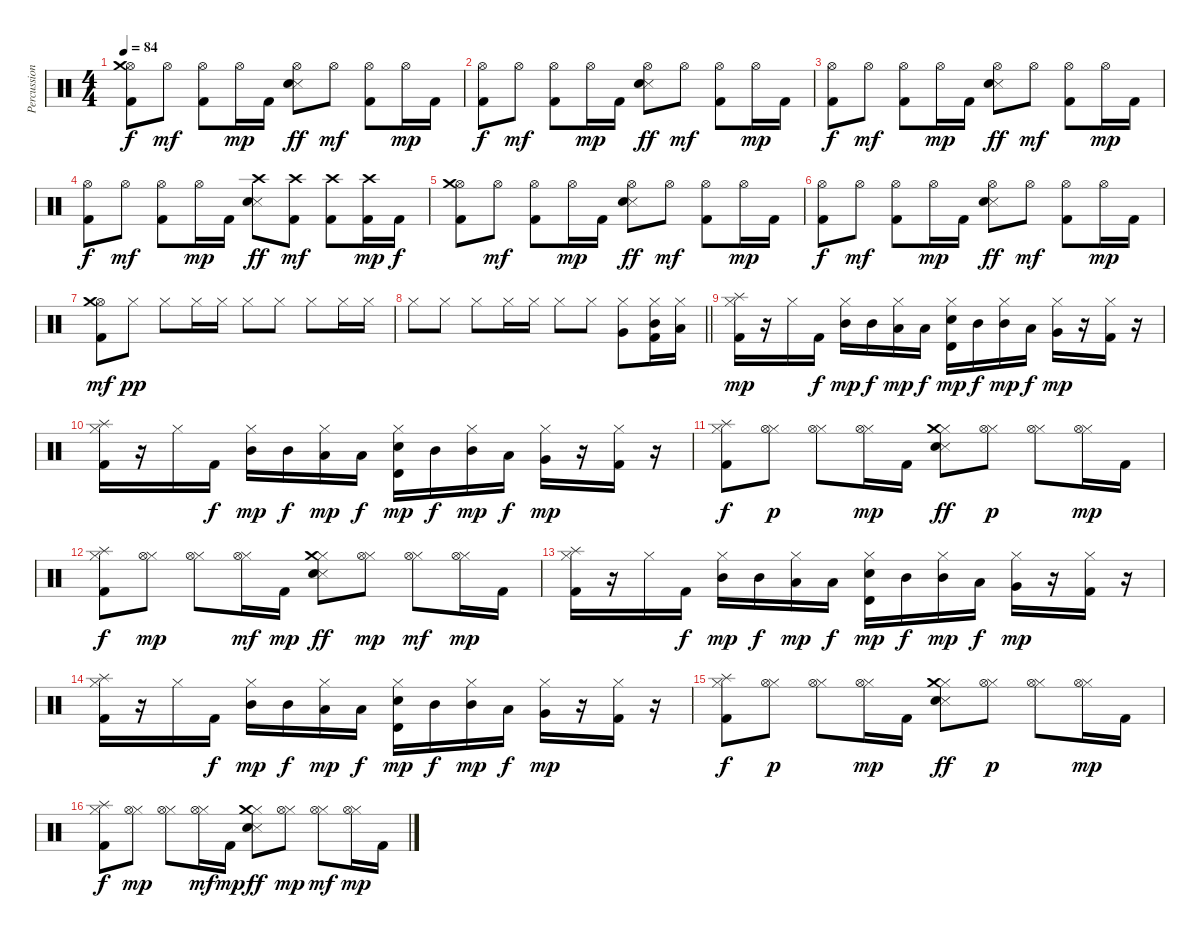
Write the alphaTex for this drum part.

\track ("Percussion" "Percussion") {instrument percussion}
\staff {score}
\articulation defaults
\ts (4 4)
\tempo 84
\clef neutral
\ks c
("Hi-Hat (open)" "Crash medium (hit)" "Kick (hit) 2").8{dy f} "Hi-Hat (open)".8{dy mf} ("Hi-Hat (open)" "Kick (hit) 2").8 "Hi-Hat (open)".16{dy mp} "Kick (hit) 2".16 ("Hi-Hat (open)" "Snare (side stick) 3" "Electric Snare (hit)").8{dy ff} "Hi-Hat (open)".8{dy mf} ("Hi-Hat (open)" "Kick (hit) 2").8 "Hi-Hat (open)".16{dy mp} "Kick (hit) 2".16 |
("Hi-Hat (open)" "Kick (hit) 2").8{dy f} "Hi-Hat (open)".8{dy mf} ("Hi-Hat (open)" "Kick (hit) 2").8 "Hi-Hat (open)".16{dy mp} "Kick (hit) 2".16 ("Hi-Hat (open)" "Snare (side stick) 3" "Electric Snare (hit)").8{dy ff} "Hi-Hat (open)".8{dy mf} ("Hi-Hat (open)" "Kick (hit) 2").8 "Hi-Hat (open)".16{dy mp} "Kick (hit) 2".16 |
("Hi-Hat (open)" "Kick (hit) 2").8{dy f} "Hi-Hat (open)".8{dy mf} ("Hi-Hat (open)" "Kick (hit) 2").8 "Hi-Hat (open)".16{dy mp} "Kick (hit) 2".16 ("Hi-Hat (open)" "Snare (side stick) 3" "Electric Snare (hit)").8{dy ff} "Hi-Hat (open)".8{dy mf} ("Hi-Hat (open)" "Kick (hit) 2").8 "Hi-Hat (open)".16{dy mp} "Kick (hit) 2".16 |
("Hi-Hat (open)" "Kick (hit) 2").8{dy f} "Hi-Hat (open)".8{dy mf} ("Hi-Hat (open)" "Kick (hit) 2").8 "Hi-Hat (open)".16{dy mp} "Kick (hit) 2".16 ("Crash high (hit)" "Snare (side stick) 3" "Electric Snare (hit)").8{dy ff} ("Crash high (hit)" "Kick (hit) 2").8{dy mf} ("Crash high (hit)" "Kick (hit) 2").8 ("Crash high (hit)" "Kick (hit) 2").16{dy mp} "Kick (hit) 2".16{dy f} |
("Hi-Hat (open)" "Crash medium (hit)" "Kick (hit) 2").8 "Hi-Hat (open)".8{dy mf} ("Hi-Hat (open)" "Kick (hit) 2").8 "Hi-Hat (open)".16{dy mp} "Kick (hit) 2".16 ("Hi-Hat (open)" "Snare (side stick) 3" "Electric Snare (hit)").8{dy ff} "Hi-Hat (open)".8{dy mf} ("Hi-Hat (open)" "Kick (hit) 2").8 "Hi-Hat (open)".16{dy mp} "Kick (hit) 2".16 |
("Hi-Hat (open)" "Kick (hit) 2").8{dy f} "Hi-Hat (open)".8{dy mf} ("Hi-Hat (open)" "Kick (hit) 2").8 "Hi-Hat (open)".16{dy mp} "Kick (hit) 2".16 ("Hi-Hat (open)" "Snare (side stick) 3" "Electric Snare (hit)").8{dy ff} "Hi-Hat (open)".8{dy mf} ("Hi-Hat (open)" "Kick (hit) 2").8 "Hi-Hat (open)".16{dy mp} "Kick (hit) 2".16 |
("Hi-Hat (open)" "Crash medium (hit)" "Kick (hit) 2").8{dy mf} "Hi-Hat (closed)".8{dy pp} "Hi-Hat (closed)".8 "Hi-Hat (closed)".16 "Hi-Hat (closed)".16 "Hi-Hat (closed)".8 "Hi-Hat (closed)".8 "Hi-Hat (closed)".8 "Hi-Hat (closed)".16 "Hi-Hat (closed)".16 |
\barLineRight lightlight "Hi-Hat (closed)".8 "Hi-Hat (closed)".8 "Hi-Hat (closed)".8 "Hi-Hat (closed)".16 "Hi-Hat (closed)".16 "Hi-Hat (closed)".8 "Hi-Hat (closed)".8
("Hi-Hat (closed)" "Very Low Tom (hit)").8 ("Hi-Hat (closed)" "Mid Tom (hit)" "Kick (hit) 2").16 ("Hi-Hat (closed)" "Low Tom (hit)").16 |
("Hi-Hat (closed)" "Splash (hit)" "Kick (hit) 2").16{dy mp} r.16 "Hi-Hat (closed)".16 "Kick (hit) 2".16{dy f} ("Hi-Hat (closed)" "Mid Tom (hit)").16{dy mp} "Mid Tom (hit)".16{dy f} ("Hi-Hat (closed)" "Low Tom (hit)").16{dy mp} "Low Tom (hit)".16{dy f} ("Hi-Hat (closed)" "Timbale high (hit)" "Electric Snare (hit)").16{dy mp} "Mid Tom (hit)".16{dy f} ("Hi-Hat (closed)" "Mid Tom (hit)").16{dy mp} "Low Tom (hit)".16{dy f} ("Hi-Hat (closed)" "Very Low Tom (hit)").16{dy mp} r.16 ("Hi-Hat (closed)" "Kick (hit) 2").16 r.16 |
("Hi-Hat (closed)" "Splash (hit)" "Kick (hit) 2").16 r.16 "Hi-Hat (closed)".16 "Kick (hit) 2".16{dy f} ("Hi-Hat (closed)" "Mid Tom (hit)").16{dy mp} "Mid Tom (hit)".16{dy f} ("Hi-Hat (closed)" "Low Tom (hit)").16{dy mp} "Low Tom (hit)".16{dy f} ("Hi-Hat (closed)" "Timbale high (hit)" "Electric Snare (hit)").16{dy mp} "Mid Tom (hit)".16{dy f} ("Hi-Hat (closed)" "Mid Tom (hit)").16{dy mp} "Low Tom (hit)".16{dy f} ("Hi-Hat (closed)" "Very Low Tom (hit)").16{dy mp} r.16 ("Hi-Hat (closed)" "Kick (hit) 2").16 r.16 |
("Hi-Hat (closed)" "Splash (hit)" "Kick (hit) 2").8{dy f} ("Hi-Hat (closed)" "Hi-Hat (open)").8{dy p} ("Hi-Hat (closed)" "Hi-Hat (open)").8 ("Hi-Hat (closed)" "Hi-Hat (open)").16{dy mp} "Kick (hit) 2".16 ("Hi-Hat (closed)" "Crash medium (hit)" "Snare (side stick) 3" "Electric Snare (hit)").8{dy ff} ("Hi-Hat (closed)" "Hi-Hat (open)").8{dy p} ("Hi-Hat (closed)" "Hi-Hat (open)").8 ("Hi-Hat (closed)" "Hi-Hat (open)").16{dy mp} "Kick (hit) 2".16 |
("Hi-Hat (closed)" "Splash (hit)" "Kick (hit) 2").8{dy f} ("Hi-Hat (closed)" "Hi-Hat (open)").8{dy mp} ("Hi-Hat (closed)" "Hi-Hat (open)").8 ("Hi-Hat (closed)" "Hi-Hat (open)").16{dy mf} "Kick (hit) 2".16{dy mp} ("Hi-Hat (closed)" "Crash medium (hit)" "Snare (side stick) 3" "Electric Snare (hit)").8{dy ff} ("Hi-Hat (closed)" "Hi-Hat (open)").8{dy mp} ("Hi-Hat (closed)" "Hi-Hat (open)").8{dy mf} ("Hi-Hat (closed)" "Hi-Hat (open)").16{dy mp} "Kick (hit) 2".16 |
("Hi-Hat (closed)" "Splash (hit)" "Kick (hit) 2").16 r.16 "Hi-Hat (closed)".16 "Kick (hit) 2".16{dy f} ("Hi-Hat (closed)" "Mid Tom (hit)").16{dy mp} "Mid Tom (hit)".16{dy f} ("Hi-Hat (closed)" "Low Tom (hit)").16{dy mp} "Low Tom (hit)".16{dy f} ("Hi-Hat (closed)" "Timbale high (hit)" "Electric Snare (hit)").16{dy mp} "Mid Tom (hit)".16{dy f} ("Hi-Hat (closed)" "Mid Tom (hit)").16{dy mp} "Low Tom (hit)".16{dy f} ("Hi-Hat (closed)" "Very Low Tom (hit)").16{dy mp} r.16 ("Hi-Hat (closed)" "Kick (hit) 2").16 r.16 |
("Hi-Hat (closed)" "Splash (hit)" "Kick (hit) 2").16 r.16 "Hi-Hat (closed)".16 "Kick (hit) 2".16{dy f} ("Hi-Hat (closed)" "Mid Tom (hit)").16{dy mp} "Mid Tom (hit)".16{dy f} ("Hi-Hat (closed)" "Low Tom (hit)").16{dy mp} "Low Tom (hit)".16{dy f} ("Hi-Hat (closed)" "Timbale high (hit)" "Electric Snare (hit)").16{dy mp} "Mid Tom (hit)".16{dy f} ("Hi-Hat (closed)" "Mid Tom (hit)").16{dy mp} "Low Tom (hit)".16{dy f} ("Hi-Hat (closed)" "Very Low Tom (hit)").16{dy mp} r.16 ("Hi-Hat (closed)" "Kick (hit) 2").16 r.16 |
("Hi-Hat (closed)" "Splash (hit)" "Kick (hit) 2").8{dy f} ("Hi-Hat (closed)" "Hi-Hat (open)").8{dy p} ("Hi-Hat (closed)" "Hi-Hat (open)").8 ("Hi-Hat (closed)" "Hi-Hat (open)").16{dy mp} "Kick (hit) 2".16 ("Hi-Hat (closed)" "Crash medium (hit)" "Snare (side stick) 3" "Electric Snare (hit)").8{dy ff} ("Hi-Hat (closed)" "Hi-Hat (open)").8{dy p} ("Hi-Hat (closed)" "Hi-Hat (open)").8 ("Hi-Hat (closed)" "Hi-Hat (open)").16{dy mp} "Kick (hit) 2".16 |
("Hi-Hat (closed)" "Splash (hit)" "Kick (hit) 2").8{dy f} ("Hi-Hat (closed)" "Hi-Hat (open)").8{dy mp} ("Hi-Hat (closed)" "Hi-Hat (open)").8 ("Hi-Hat (closed)" "Hi-Hat (open)").16{dy mf} "Kick (hit) 2".16{dy mp} ("Hi-Hat (closed)" "Crash medium (hit)" "Snare (side stick) 3" "Electric Snare (hit)").8{dy ff} ("Hi-Hat (closed)" "Hi-Hat (open)").8{dy mp} ("Hi-Hat (closed)" "Hi-Hat (open)").8{dy mf} ("Hi-Hat (closed)" "Hi-Hat (open)").16{dy mp} "Kick (hit) 2".16
